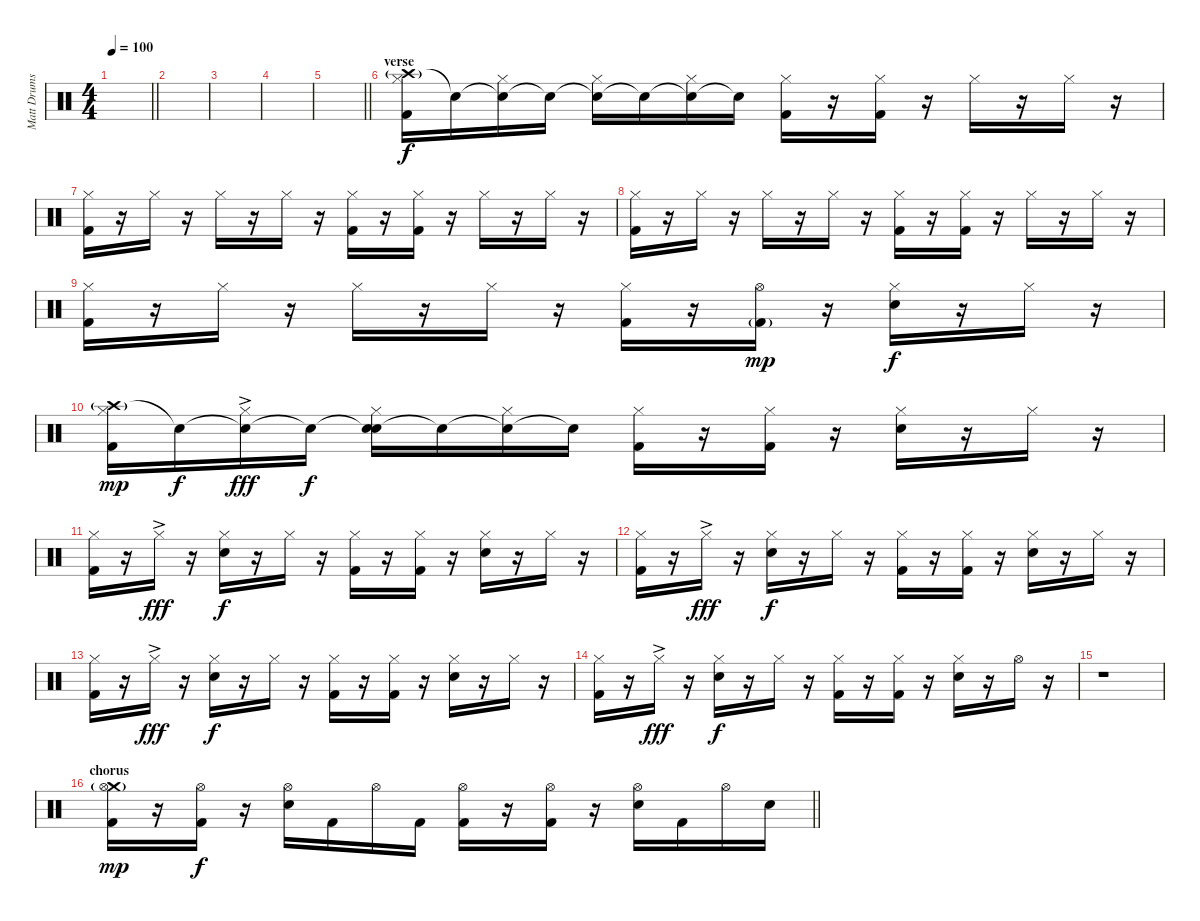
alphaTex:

\track ("Matt Drums" "Matt Drums") {instrument percussion}
\staff {score}
\articulation defaults
\ts (4 4)
\tempo 100
\clef neutral
\barLineRight lightlight
\ks c
|
|
|
|
\barLineRight lightlight
|
\section ("" "verse")
("Crash high (hit)"{g} "Hi-Hat (closed)" "Kick (hit) 2").16 "Snare (hit)"{t}.16{dy f} ("Snare (hit)"{t} "Hi-Hat (closed)").16 "Snare (hit)"{t}.16 ("Snare (hit)"{t} "Hi-Hat (closed)").16 "Snare (hit)"{t}.16 ("Snare (hit)"{t} "Hi-Hat (closed)").16 "Snare (hit)"{t}.16 ("Hi-Hat (closed)" "Kick (hit) 2").16 r.16 ("Hi-Hat (closed)" "Kick (hit) 2").16 r.16 "Hi-Hat (closed)".16 r.16 "Hi-Hat (closed)".16 r.16 |
("Hi-Hat (closed)" "Kick (hit) 2").16 r.16 "Hi-Hat (closed)".16 r.16 "Hi-Hat (closed)".16 r.16 "Hi-Hat (closed)".16 r.16 ("Hi-Hat (closed)" "Kick (hit) 2").16 r.16 ("Hi-Hat (closed)" "Kick (hit) 2").16 r.16 "Hi-Hat (closed)".16 r.16 "Hi-Hat (closed)".16 r.16 |
("Hi-Hat (closed)" "Kick (hit) 2").16 r.16 "Hi-Hat (closed)".16 r.16 "Hi-Hat (closed)".16 r.16 "Hi-Hat (closed)".16 r.16 ("Hi-Hat (closed)" "Kick (hit) 2").16 r.16 ("Hi-Hat (closed)" "Kick (hit) 2").16 r.16 "Hi-Hat (closed)".16 r.16 "Hi-Hat (closed)".16 r.16 |
("Hi-Hat (closed)" "Kick (hit) 2").16 r.16 "Hi-Hat (closed)".16 r.16 "Hi-Hat (closed)".16 r.16 "Hi-Hat (closed)".16 r.16 ("Hi-Hat (closed)" "Kick (hit) 2").16 r.16 ("Hi-Hat (open)" "Kick (hit) 2"{g}).16{dy mp} r.16 ("Hi-Hat (closed)" "Electric Snare (hit)").16{dy f} r.16 "Hi-Hat (closed)".16 r.16 |
("Crash high (hit)"{g} "Hi-Hat (closed)" "Kick (hit) 2").16{dy mp} "Snare (hit)"{t}.16{dy f} ("Snare (hit)"{t} "Hi-Hat (closed)"{ac}).16{dy fff} "Snare (hit)"{t}.16{dy f} ("Snare (hit)"{t} "Hi-Hat (closed)" "Electric Snare (hit)").16 "Snare (hit)"{t}.16 ("Snare (hit)"{t} "Hi-Hat (closed)").16 "Snare (hit)"{t}.16 ("Hi-Hat (closed)" "Kick (hit) 2").16 r.16 ("Hi-Hat (closed)" "Kick (hit) 2").16 r.16 ("Hi-Hat (closed)" "Electric Snare (hit)").16 r.16 "Hi-Hat (closed)".16 r.16 |
("Hi-Hat (closed)" "Kick (hit) 2").16 r.16 "Hi-Hat (closed)"{ac}.16{dy fff} r.16 ("Hi-Hat (closed)" "Electric Snare (hit)").16{dy f} r.16 "Hi-Hat (closed)".16 r.16 ("Hi-Hat (closed)" "Kick (hit) 2").16 r.16 ("Hi-Hat (closed)" "Kick (hit) 2").16 r.16 ("Hi-Hat (closed)" "Electric Snare (hit)").16 r.16 "Hi-Hat (closed)".16 r.16 |
("Hi-Hat (closed)" "Kick (hit) 2").16 r.16 "Hi-Hat (closed)"{ac}.16{dy fff} r.16 ("Hi-Hat (closed)" "Electric Snare (hit)").16{dy f} r.16 "Hi-Hat (closed)".16 r.16 ("Hi-Hat (closed)" "Kick (hit) 2").16 r.16 ("Hi-Hat (closed)" "Kick (hit) 2").16 r.16 ("Hi-Hat (closed)" "Electric Snare (hit)").16 r.16 "Hi-Hat (closed)".16 r.16 |
("Hi-Hat (closed)" "Kick (hit) 2").16 r.16 "Hi-Hat (closed)"{ac}.16{dy fff} r.16 ("Hi-Hat (closed)" "Electric Snare (hit)").16{dy f} r.16 "Hi-Hat (closed)".16 r.16 ("Hi-Hat (closed)" "Kick (hit) 2").16 r.16 ("Hi-Hat (closed)" "Kick (hit) 2").16 r.16 ("Hi-Hat (closed)" "Electric Snare (hit)").16 r.16 "Hi-Hat (closed)".16 r.16 |
("Hi-Hat (closed)" "Kick (hit) 2").16 r.16 "Hi-Hat (closed)"{ac}.16{dy fff} r.16 ("Hi-Hat (closed)" "Electric Snare (hit)").16{dy f} r.16 "Hi-Hat (closed)".16 r.16 ("Hi-Hat (closed)" "Kick (hit) 2").16 r.16 ("Hi-Hat (closed)" "Kick (hit) 2").16 r.16 ("Hi-Hat (closed)" "Electric Snare (hit)").16 r.16 "Hi-Hat (open)".16 r.16 |
r.1 |
\section ("" "chorus")
\barLineRight lightlight
("Crash medium (hit)" "Hi-Hat (open)"{g} "Kick (hit) 2").16{dy mp} r.16 ("Hi-Hat (open)" "Kick (hit) 2").16{dy f} r.16 ("Hi-Hat (open)" "Electric Snare (hit)").16 "Kick (hit) 2".16 "Hi-Hat (open)".16 "Kick (hit) 2".16 ("Hi-Hat (open)" "Kick (hit) 2").16 r.16 ("Hi-Hat (open)" "Kick (hit) 2").16 r.16 ("Hi-Hat (open)" "Electric Snare (hit)").16 "Kick (hit) 2".16 "Hi-Hat (open)".16 "Electric Snare (hit)".16
